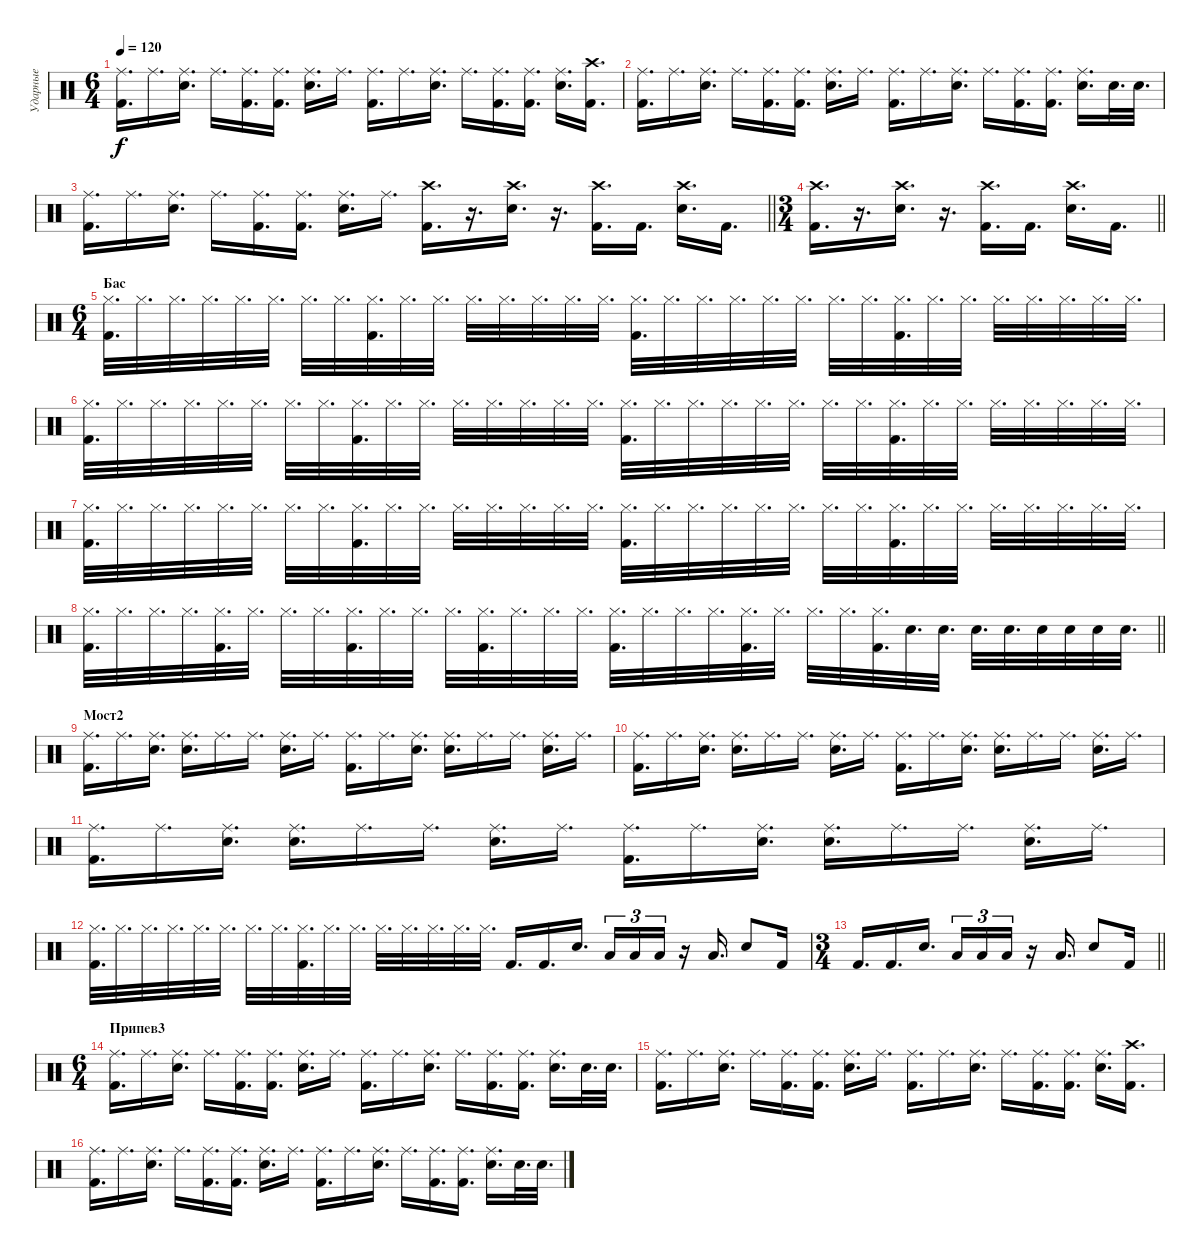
\track ("Ударные" "Ударные") {instrument percussion}
\staff {score}
\articulation defaults
\ts (6 4)
\tempo 120
\clef neutral
\ks c
("Ride (middle)" "Kick (hit) 2").16{d dy f} "Ride (middle)".16{d} ("Ride (middle)" "Electric Snare (hit)").16{d} "Ride (middle)".16{d} ("Ride (middle)" "Kick (hit) 2").16{d} ("Ride (middle)" "Kick (hit) 2").16{d} ("Ride (middle)" "Electric Snare (hit)").16{d} "Ride (middle)".16{d} ("Ride (middle)" "Kick (hit) 2").16{d} "Ride (middle)".16{d} ("Ride (middle)" "Electric Snare (hit)").16{d} "Ride (middle)".16{d} ("Ride (middle)" "Kick (hit) 2").16{d} ("Ride (middle)" "Kick (hit) 2").16{d} ("Ride (middle)" "Electric Snare (hit)").16{d} ("Crash high (hit)" "Kick (hit) 2").16{d} |
("Ride (middle)" "Kick (hit) 2").16{d} "Ride (middle)".16{d} ("Ride (middle)" "Electric Snare (hit)").16{d} "Ride (middle)".16{d} ("Ride (middle)" "Kick (hit) 2").16{d} ("Ride (middle)" "Kick (hit) 2").16{d} ("Ride (middle)" "Electric Snare (hit)").16{d} "Ride (middle)".16{d} ("Ride (middle)" "Kick (hit) 2").16{d} "Ride (middle)".16{d} ("Ride (middle)" "Electric Snare (hit)").16{d} "Ride (middle)".16{d} ("Ride (middle)" "Kick (hit) 2").16{d} ("Ride (middle)" "Kick (hit) 2").16{d} ("Ride (middle)" "Electric Snare (hit)").16{d} "Electric Snare (hit)".32{d} "Electric Snare (hit)".32{d} |
\barLineRight lightlight
("Ride (middle)" "Kick (hit) 2").16{d} "Ride (middle)".16{d} ("Ride (middle)" "Electric Snare (hit)").16{d} "Ride (middle)".16{d} ("Ride (middle)" "Kick (hit) 2").16{d} ("Ride (middle)" "Kick (hit) 2").16{d} ("Ride (middle)" "Electric Snare (hit)").16{d} "Ride (middle)".16{d} ("Crash high (hit)" "Kick (hit) 2").16{d} r.16{d} ("Crash high (hit)" "Electric Snare (hit)").16{d} r.16{d} ("Crash high (hit)" "Kick (hit) 2").16{d} "Kick (hit) 2".16{d} ("Crash high (hit)" "Electric Snare (hit)").16{d} "Kick (hit) 2".16{d} |
\ts (3 4)
\barLineRight lightlight
("Crash high (hit)" "Kick (hit) 2").16{d} r.16{d} ("Crash high (hit)" "Electric Snare (hit)").16{d} r.16{d} ("Crash high (hit)" "Kick (hit) 2").16{d} "Kick (hit) 2".16{d} ("Crash high (hit)" "Electric Snare (hit)").16{d} "Kick (hit) 2".16{d} |
\ts (6 4)
\section ("" "Бас")
("Hi-Hat (closed)" "Kick (hit) 2").32{d} "Hi-Hat (closed)".32{d} "Hi-Hat (closed)".32{d} "Hi-Hat (closed)".32{d} "Hi-Hat (closed)".32{d} "Hi-Hat (closed)".32{d} "Hi-Hat (closed)".32{d} "Hi-Hat (closed)".32{d} ("Hi-Hat (closed)" "Kick (hit) 2").32{d} "Hi-Hat (closed)".32{d} "Hi-Hat (closed)".32{d} "Hi-Hat (closed)".32{d} "Hi-Hat (closed)".32{d} "Hi-Hat (closed)".32{d} "Hi-Hat (closed)".32{d} "Hi-Hat (closed)".32{d} ("Hi-Hat (closed)" "Kick (hit) 2").32{d} "Hi-Hat (closed)".32{d} "Hi-Hat (closed)".32{d} "Hi-Hat (closed)".32{d} "Hi-Hat (closed)".32{d} "Hi-Hat (closed)".32{d} "Hi-Hat (closed)".32{d} "Hi-Hat (closed)".32{d} ("Hi-Hat (closed)" "Kick (hit) 2").32{d} "Hi-Hat (closed)".32{d} "Hi-Hat (closed)".32{d} "Hi-Hat (closed)".32{d} "Hi-Hat (closed)".32{d} "Hi-Hat (closed)".32{d} "Hi-Hat (closed)".32{d} "Hi-Hat (closed)".32{d} |
("Hi-Hat (closed)" "Kick (hit) 2").32{d} "Hi-Hat (closed)".32{d} "Hi-Hat (closed)".32{d} "Hi-Hat (closed)".32{d} "Hi-Hat (closed)".32{d} "Hi-Hat (closed)".32{d} "Hi-Hat (closed)".32{d} "Hi-Hat (closed)".32{d} ("Hi-Hat (closed)" "Kick (hit) 2").32{d} "Hi-Hat (closed)".32{d} "Hi-Hat (closed)".32{d} "Hi-Hat (closed)".32{d} "Hi-Hat (closed)".32{d} "Hi-Hat (closed)".32{d} "Hi-Hat (closed)".32{d} "Hi-Hat (closed)".32{d} ("Hi-Hat (closed)" "Kick (hit) 2").32{d} "Hi-Hat (closed)".32{d} "Hi-Hat (closed)".32{d} "Hi-Hat (closed)".32{d} "Hi-Hat (closed)".32{d} "Hi-Hat (closed)".32{d} "Hi-Hat (closed)".32{d} "Hi-Hat (closed)".32{d} ("Hi-Hat (closed)" "Kick (hit) 2").32{d} "Hi-Hat (closed)".32{d} "Hi-Hat (closed)".32{d} "Hi-Hat (closed)".32{d} "Hi-Hat (closed)".32{d} "Hi-Hat (closed)".32{d} "Hi-Hat (closed)".32{d} "Hi-Hat (closed)".32{d} |
("Hi-Hat (closed)" "Kick (hit) 2").32{d} "Hi-Hat (closed)".32{d} "Hi-Hat (closed)".32{d} "Hi-Hat (closed)".32{d} "Hi-Hat (closed)".32{d} "Hi-Hat (closed)".32{d} "Hi-Hat (closed)".32{d} "Hi-Hat (closed)".32{d} ("Hi-Hat (closed)" "Kick (hit) 2").32{d} "Hi-Hat (closed)".32{d} "Hi-Hat (closed)".32{d} "Hi-Hat (closed)".32{d} "Hi-Hat (closed)".32{d} "Hi-Hat (closed)".32{d} "Hi-Hat (closed)".32{d} "Hi-Hat (closed)".32{d} ("Hi-Hat (closed)" "Kick (hit) 2").32{d} "Hi-Hat (closed)".32{d} "Hi-Hat (closed)".32{d} "Hi-Hat (closed)".32{d} "Hi-Hat (closed)".32{d} "Hi-Hat (closed)".32{d} "Hi-Hat (closed)".32{d} "Hi-Hat (closed)".32{d} ("Hi-Hat (closed)" "Kick (hit) 2").32{d} "Hi-Hat (closed)".32{d} "Hi-Hat (closed)".32{d} "Hi-Hat (closed)".32{d} "Hi-Hat (closed)".32{d} "Hi-Hat (closed)".32{d} "Hi-Hat (closed)".32{d} "Hi-Hat (closed)".32{d} |
\barLineRight lightlight
("Hi-Hat (closed)" "Kick (hit) 2").32{d} "Hi-Hat (closed)".32{d} "Hi-Hat (closed)".32{d} "Hi-Hat (closed)".32{d} ("Hi-Hat (closed)" "Kick (hit) 2").32{d} "Hi-Hat (closed)".32{d} "Hi-Hat (closed)".32{d} "Hi-Hat (closed)".32{d} ("Hi-Hat (closed)" "Kick (hit) 2").32{d} "Hi-Hat (closed)".32{d} "Hi-Hat (closed)".32{d} "Hi-Hat (closed)".32{d} ("Hi-Hat (closed)" "Kick (hit) 2").32{d} "Hi-Hat (closed)".32{d} "Hi-Hat (closed)".32{d} "Hi-Hat (closed)".32{d} ("Hi-Hat (closed)" "Kick (hit) 2").32{d} "Hi-Hat (closed)".32{d} "Hi-Hat (closed)".32{d} "Hi-Hat (closed)".32{d} ("Hi-Hat (closed)" "Kick (hit) 2").32{d} "Hi-Hat (closed)".32{d} "Hi-Hat (closed)".32{d} "Hi-Hat (closed)".32{d} ("Hi-Hat (closed)" "Kick (hit) 2").32{d} "Electric Snare (hit)".32{d} "Electric Snare (hit)".32{d} "Electric Snare (hit)".32{d} "Electric Snare (hit)".32{d} "Electric Snare (hit)".32 "Electric Snare (hit)".32 "Electric Snare (hit)".32 "Electric Snare (hit)".32{d} |
\section ("" "Мост2")
("Ride (middle)" "Kick (hit) 2").16{d} "Ride (middle)".16{d} ("Ride (middle)" "Electric Snare (hit)").16{d} ("Ride (middle)" "Electric Snare (hit)").16{d} "Ride (middle)".16{d} "Ride (middle)".16{d} ("Ride (middle)" "Electric Snare (hit)").16{d} "Ride (middle)".16{d} ("Ride (middle)" "Kick (hit) 2").16{d} "Ride (middle)".16{d} ("Ride (middle)" "Electric Snare (hit)").16{d} ("Ride (middle)" "Electric Snare (hit)").16{d} "Ride (middle)".16{d} "Ride (middle)".16{d} ("Ride (middle)" "Electric Snare (hit)").16{d} "Ride (middle)".16{d} |
("Ride (middle)" "Kick (hit) 2").16{d} "Ride (middle)".16{d} ("Ride (middle)" "Electric Snare (hit)").16{d} ("Ride (middle)" "Electric Snare (hit)").16{d} "Ride (middle)".16{d} "Ride (middle)".16{d} ("Ride (middle)" "Electric Snare (hit)").16{d} "Ride (middle)".16{d} ("Ride (middle)" "Kick (hit) 2").16{d} "Ride (middle)".16{d} ("Ride (middle)" "Electric Snare (hit)").16{d} ("Ride (middle)" "Electric Snare (hit)").16{d} "Ride (middle)".16{d} "Ride (middle)".16{d} ("Ride (middle)" "Electric Snare (hit)").16{d} "Ride (middle)".16{d} |
("Ride (middle)" "Kick (hit) 2").16{d} "Ride (middle)".16{d} ("Ride (middle)" "Electric Snare (hit)").16{d} ("Ride (middle)" "Electric Snare (hit)").16{d} "Ride (middle)".16{d} "Ride (middle)".16{d} ("Ride (middle)" "Electric Snare (hit)").16{d} "Ride (middle)".16{d} ("Ride (middle)" "Kick (hit) 2").16{d} "Ride (middle)".16{d} ("Ride (middle)" "Electric Snare (hit)").16{d} ("Ride (middle)" "Electric Snare (hit)").16{d} "Ride (middle)".16{d} "Ride (middle)".16{d} ("Ride (middle)" "Electric Snare (hit)").16{d} "Ride (middle)".16{d} |
("Hi-Hat (closed)" "Kick (hit) 2").32{d} "Hi-Hat (closed)".32{d} "Hi-Hat (closed)".32{d} "Hi-Hat (closed)".32{d} "Hi-Hat (closed)".32{d} "Hi-Hat (closed)".32{d} "Hi-Hat (closed)".32{d} "Hi-Hat (closed)".32{d} ("Hi-Hat (closed)" "Kick (hit) 2").32{d} "Hi-Hat (closed)".32{d} "Hi-Hat (closed)".32{d} "Hi-Hat (closed)".32{d} "Hi-Hat (closed)".32{d} "Hi-Hat (closed)".32{d} "Hi-Hat (closed)".32{d} "Hi-Hat (closed)".32{d} "Kick (hit) 2".16{d} "Kick (hit) 2".16{d} "Electric Snare (hit)".16{d beam splitsecondary} "Low Floor Tom (hit)".16{tu (3 2)} "Low Floor Tom (hit)".16{tu (3 2)} "Low Floor Tom (hit)".16{tu (3 2)} r.16 "Low Tom (hit)".16{d} "Electric Snare (hit)".8 "Kick (hit) 2".16 |
\ts (3 4)
\barLineRight lightlight "Kick (hit) 2".16{d} "Kick (hit) 2".16{d} "Electric Snare (hit)".16{d} "Low Floor Tom (hit)".16{tu (3 2)} "Low Floor Tom (hit)".16{tu (3 2)} "Low Floor Tom (hit)".16{tu (3 2)}
r.16 "Low Tom (hit)".16{d} "Electric Snare (hit)".8 "Kick (hit) 2".16 |
\ts (6 4)
\section ("" "Припев3")
("Ride (middle)" "Kick (hit) 2").16{d} "Ride (middle)".16{d} ("Ride (middle)" "Electric Snare (hit)").16{d} "Ride (middle)".16{d} ("Ride (middle)" "Kick (hit) 2").16{d} ("Ride (middle)" "Kick (hit) 2").16{d} ("Ride (middle)" "Electric Snare (hit)").16{d} "Ride (middle)".16{d} ("Ride (middle)" "Kick (hit) 2").16{d} "Ride (middle)".16{d} ("Ride (middle)" "Electric Snare (hit)").16{d} "Ride (middle)".16{d} ("Ride (middle)" "Kick (hit) 2").16{d} ("Ride (middle)" "Kick (hit) 2").16{d} ("Ride (middle)" "Electric Snare (hit)").16{d} "Electric Snare (hit)".32{d} "Electric Snare (hit)".32{d} |
("Ride (middle)" "Kick (hit) 2").16{d} "Ride (middle)".16{d} ("Ride (middle)" "Electric Snare (hit)").16{d} "Ride (middle)".16{d} ("Ride (middle)" "Kick (hit) 2").16{d} ("Ride (middle)" "Kick (hit) 2").16{d} ("Ride (middle)" "Electric Snare (hit)").16{d} "Ride (middle)".16{d} ("Ride (middle)" "Kick (hit) 2").16{d} "Ride (middle)".16{d} ("Ride (middle)" "Electric Snare (hit)").16{d} "Ride (middle)".16{d} ("Ride (middle)" "Kick (hit) 2").16{d} ("Ride (middle)" "Kick (hit) 2").16{d} ("Ride (middle)" "Electric Snare (hit)").16{d} ("Crash high (hit)" "Kick (hit) 2").16{d} |
("Ride (middle)" "Kick (hit) 2").16{d} "Ride (middle)".16{d} ("Ride (middle)" "Electric Snare (hit)").16{d} "Ride (middle)".16{d} ("Ride (middle)" "Kick (hit) 2").16{d} ("Ride (middle)" "Kick (hit) 2").16{d} ("Ride (middle)" "Electric Snare (hit)").16{d} "Ride (middle)".16{d} ("Ride (middle)" "Kick (hit) 2").16{d} "Ride (middle)".16{d} ("Ride (middle)" "Electric Snare (hit)").16{d} "Ride (middle)".16{d} ("Ride (middle)" "Kick (hit) 2").16{d} ("Ride (middle)" "Kick (hit) 2").16{d} ("Ride (middle)" "Electric Snare (hit)").16{d} "Electric Snare (hit)".32{d} "Electric Snare (hit)".32{d}
